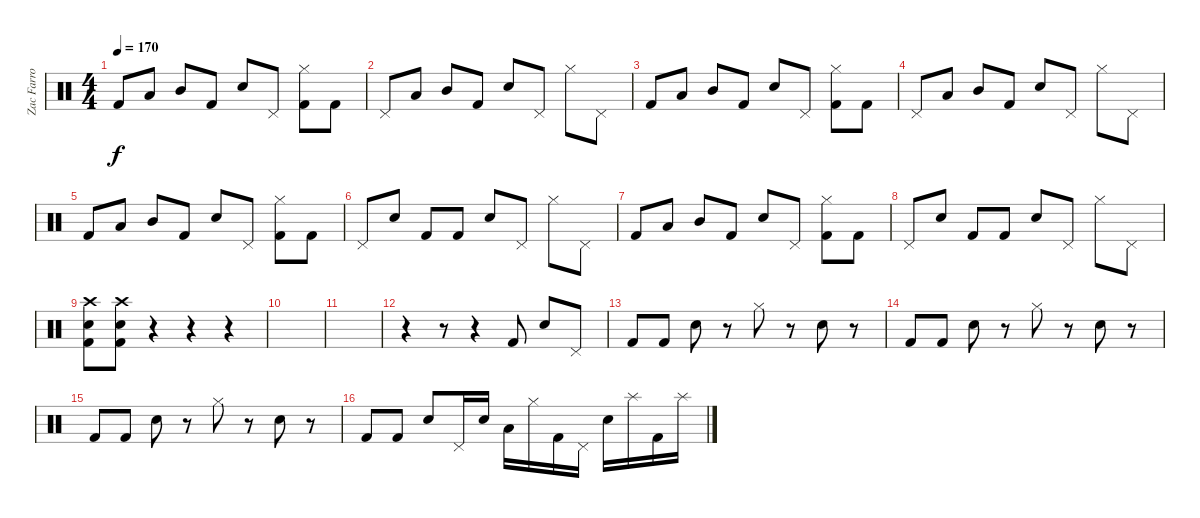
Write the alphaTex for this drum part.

\track ("Zac Farro Drums" "Zac Farro ") {instrument percussion}
\staff {score}
\articulation defaults
\ts (4 4)
\tempo 170
\clef neutral
\ks c "Kick (hit) 2".8{dy f} "Low Tom (hit)".8 "Mid Tom (hit)".8 "Kick (hit) 2".8 "Electric Snare (hit)".8 "Pedal Hi-Hat (hit)".8
("Hi-Hat (closed)" "Kick (hit) 2").8 "Kick (hit) 2".8 |
"Pedal Hi-Hat (hit)".8 "Low Tom (hit)".8 "Mid Tom (hit)".8 "Kick (hit) 2".8 "Electric Snare (hit)".8 "Pedal Hi-Hat (hit)".8 "Hi-Hat (closed)".8 "Pedal Hi-Hat (hit)".8 |
"Kick (hit) 2".8 "Low Tom (hit)".8 "Mid Tom (hit)".8 "Kick (hit) 2".8 "Electric Snare (hit)".8 "Pedal Hi-Hat (hit)".8 ("Hi-Hat (closed)" "Kick (hit) 2").8 "Kick (hit) 2".8 |
"Pedal Hi-Hat (hit)".8 "Low Tom (hit)".8 "Mid Tom (hit)".8 "Kick (hit) 2".8 "Electric Snare (hit)".8 "Pedal Hi-Hat (hit)".8 "Hi-Hat (closed)".8 "Pedal Hi-Hat (hit)".8 |
"Kick (hit) 2".8 "Low Tom (hit)".8 "Mid Tom (hit)".8 "Kick (hit) 2".8 "Electric Snare (hit)".8 "Pedal Hi-Hat (hit)".8 ("Hi-Hat (closed)" "Kick (hit) 2").8 "Kick (hit) 2".8 |
"Pedal Hi-Hat (hit)".8 "Electric Snare (hit)".8 "Kick (hit) 2".8 "Kick (hit) 2".8 "Electric Snare (hit)".8 "Pedal Hi-Hat (hit)".8 "Hi-Hat (closed)".8 "Pedal Hi-Hat (hit)".8 |
"Kick (hit) 2".8 "Low Tom (hit)".8 "Mid Tom (hit)".8 "Kick (hit) 2".8 "Electric Snare (hit)".8 "Pedal Hi-Hat (hit)".8 ("Hi-Hat (closed)" "Kick (hit) 2").8 "Kick (hit) 2".8 |
"Pedal Hi-Hat (hit)".8 "Electric Snare (hit)".8 "Kick (hit) 2".8 "Kick (hit) 2".8 "Electric Snare (hit)".8 "Pedal Hi-Hat (hit)".8 "Hi-Hat (closed)".8 "Pedal Hi-Hat (hit)".8 |
("Crash high (hit)" "Electric Snare (hit)" "Kick (hit) 2").8 ("Crash high (hit)" "Electric Snare (hit)" "Kick (hit) 2").8 r.4 r.4 r.4 |
|
|
r.4 r.8 r.4 "Kick (hit) 2".8 "Electric Snare (hit)".8 "Pedal Hi-Hat (hit)".8 |
"Kick (hit) 2".8 "Kick (hit) 2".8 "Electric Snare (hit)".8 r.8 "Hi-Hat (closed)".8 r.8 "Electric Snare (hit)".8 r.8 |
"Kick (hit) 2".8 "Kick (hit) 2".8 "Electric Snare (hit)".8 r.8 "Hi-Hat (closed)".8 r.8 "Electric Snare (hit)".8 r.8 |
"Kick (hit) 2".8 "Kick (hit) 2".8 "Electric Snare (hit)".8 r.8 "Hi-Hat (closed)".8 r.8 "Electric Snare (hit)".8 r.8 |
"Kick (hit) 2".8 "Kick (hit) 2".8 "Electric Snare (hit)".8 "Pedal Hi-Hat (hit)".16 "Electric Snare (hit)".16 "Low Tom (hit)".16 "Hi-Hat (closed)".16 "Kick (hit) 2".16 "Pedal Hi-Hat (hit)".16 "Electric Snare (hit)".16 "Splash (hit)".16 "Kick (hit) 2".16 "Splash (hit)".16
